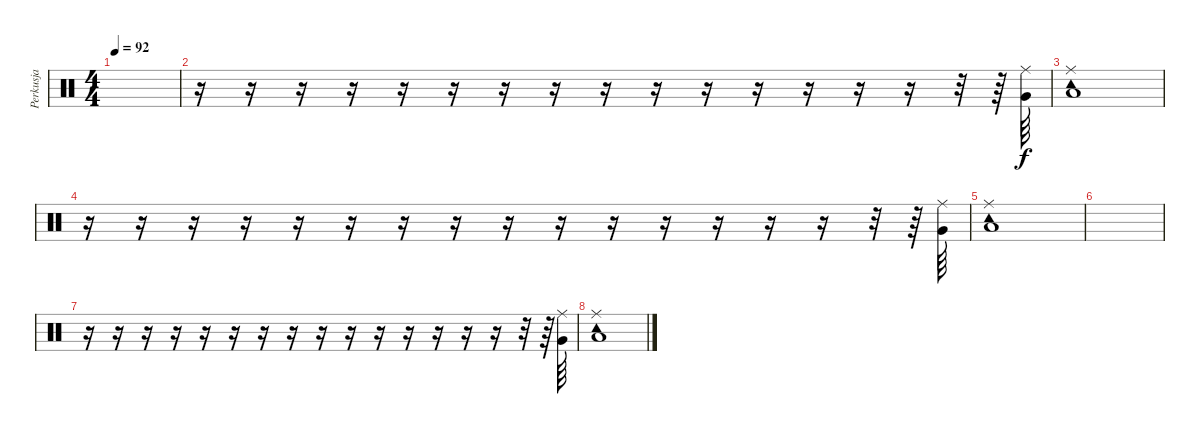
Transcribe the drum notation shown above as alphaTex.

\track ("Perkusja" "Perkusja") {instrument percussion}
\staff {score}
\articulation defaults
\ts (4 4)
\tempo 92
\clef neutral
\ks c
|
r.16 r.16 r.16 r.16 r.16 r.16 r.16 r.16 r.16 r.16 r.16 r.16 r.16 r.16 r.16 r.32 r.64 ("Ride (middle)" "Very Low Tom (hit)").64 |
("Tambourine (hit)" "Ride (middle)" "Low Floor Tom (hit)").1 |
r.16 r.16 r.16 r.16 r.16 r.16 r.16 r.16 r.16 r.16 r.16 r.16 r.16 r.16 r.16 r.32 r.64 ("Ride (middle)" "Very Low Tom (hit)").64 |
("Tambourine (hit)" "Ride (middle)" "Low Floor Tom (hit)").1 |
|
r.16 r.16 r.16 r.16 r.16 r.16 r.16 r.16 r.16 r.16 r.16 r.16 r.16 r.16 r.16 r.32 r.64 ("Ride (middle)" "Very Low Tom (hit)").64 |
("Tambourine (hit)" "Ride (middle)" "Low Floor Tom (hit)").1
